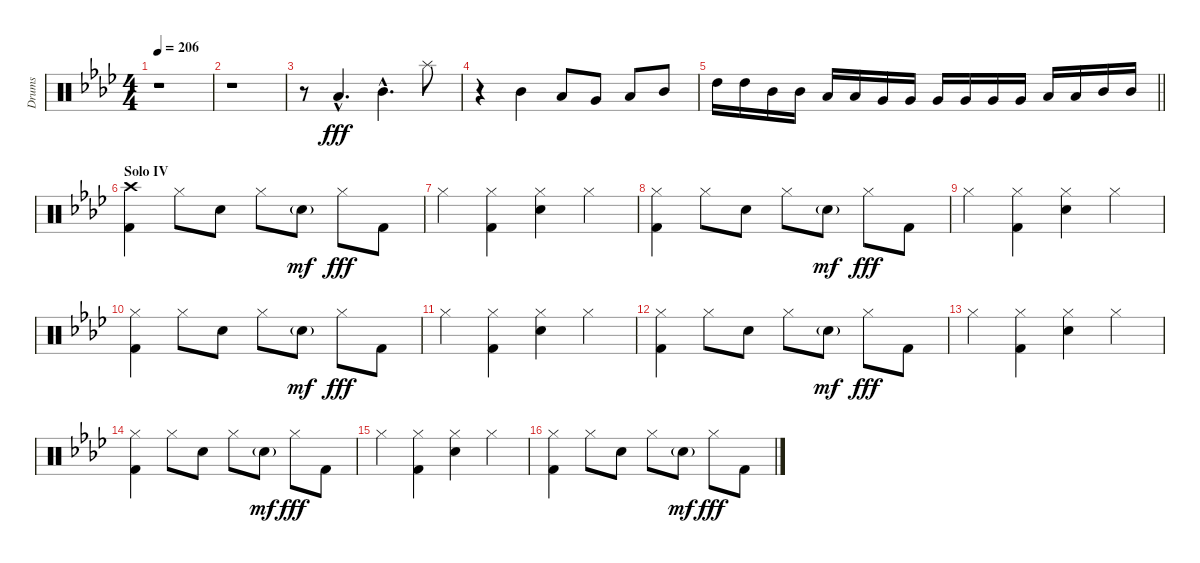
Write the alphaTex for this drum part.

\track ("Drums" "Drums") {instrument percussion}
\staff {score}
\articulation defaults
\ts (4 4)
\tempo 206
\clef neutral
\ks ab
r.1{dy fff} |
r.1 |
r.8 "Low Tom (hit)"{hac}.4{d} "Mid Tom (hit)"{hac}.4{d} "Splash (hit)".8 |
r.4 "Mid Tom (hit)".4 "Low Tom (hit)".8 "Very Low Tom (hit)".8 "Low Floor Tom (hit)".8 "Mid Tom (hit)".8 |
\barLineRight lightlight "High Tom (hit)".16 "High Tom (hit)".16 "Mid Tom (hit)".16 "Mid Tom (hit)".16 "Low Tom (hit)".16 "Low Tom (hit)".16 "Very Low Tom (hit)".16 "Very Low Tom (hit)".16 "Very Low Tom (hit)".16 "Very Low Tom (hit)".16 "Very Low Tom (hit)".16 "Very Low Tom (hit)".16 "Low Tom (hit)".16 "Low Tom (hit)".16 "Mid Tom (hit)".16 "Mid Tom (hit)".16
|
\section ("" "Solo IV")
("Crash high (hit)" "Kick (hit) 2").4 "Hi-Hat (closed)".8 "Electric Snare (hit)".8 "Hi-Hat (closed)".8 "Electric Snare (hit)"{g}.8{dy mf} "Hi-Hat (closed)".8{dy fff} "Kick (hit) 2".8 |
"Hi-Hat (closed)".4 ("Hi-Hat (closed)" "Kick (hit) 2").4 ("Hi-Hat (closed)" "Electric Snare (hit)").4 "Hi-Hat (closed)".4 |
("Hi-Hat (closed)" "Kick (hit) 2").4 "Hi-Hat (closed)".8 "Electric Snare (hit)".8 "Hi-Hat (closed)".8 "Electric Snare (hit)"{g}.8{dy mf} "Hi-Hat (closed)".8{dy fff} "Kick (hit) 2".8 |
"Hi-Hat (closed)".4 ("Hi-Hat (closed)" "Kick (hit) 2").4 ("Hi-Hat (closed)" "Electric Snare (hit)").4 "Hi-Hat (closed)".4 |
("Hi-Hat (closed)" "Kick (hit) 2").4 "Hi-Hat (closed)".8 "Electric Snare (hit)".8 "Hi-Hat (closed)".8 "Electric Snare (hit)"{g}.8{dy mf} "Hi-Hat (closed)".8{dy fff} "Kick (hit) 2".8 |
"Hi-Hat (closed)".4 ("Hi-Hat (closed)" "Kick (hit) 2").4 ("Hi-Hat (closed)" "Electric Snare (hit)").4 "Hi-Hat (closed)".4 |
("Hi-Hat (closed)" "Kick (hit) 2").4 "Hi-Hat (closed)".8 "Electric Snare (hit)".8 "Hi-Hat (closed)".8 "Electric Snare (hit)"{g}.8{dy mf} "Hi-Hat (closed)".8{dy fff} "Kick (hit) 2".8 |
"Hi-Hat (closed)".4 ("Hi-Hat (closed)" "Kick (hit) 2").4 ("Hi-Hat (closed)" "Electric Snare (hit)").4 "Hi-Hat (closed)".4 |
("Hi-Hat (closed)" "Kick (hit) 2").4 "Hi-Hat (closed)".8 "Electric Snare (hit)".8 "Hi-Hat (closed)".8 "Electric Snare (hit)"{g}.8{dy mf} "Hi-Hat (closed)".8{dy fff} "Kick (hit) 2".8 |
"Hi-Hat (closed)".4 ("Hi-Hat (closed)" "Kick (hit) 2").4 ("Hi-Hat (closed)" "Electric Snare (hit)").4 "Hi-Hat (closed)".4 |
("Hi-Hat (closed)" "Kick (hit) 2").4 "Hi-Hat (closed)".8 "Electric Snare (hit)".8 "Hi-Hat (closed)".8 "Electric Snare (hit)"{g}.8{dy mf} "Hi-Hat (closed)".8{dy fff} "Kick (hit) 2".8
